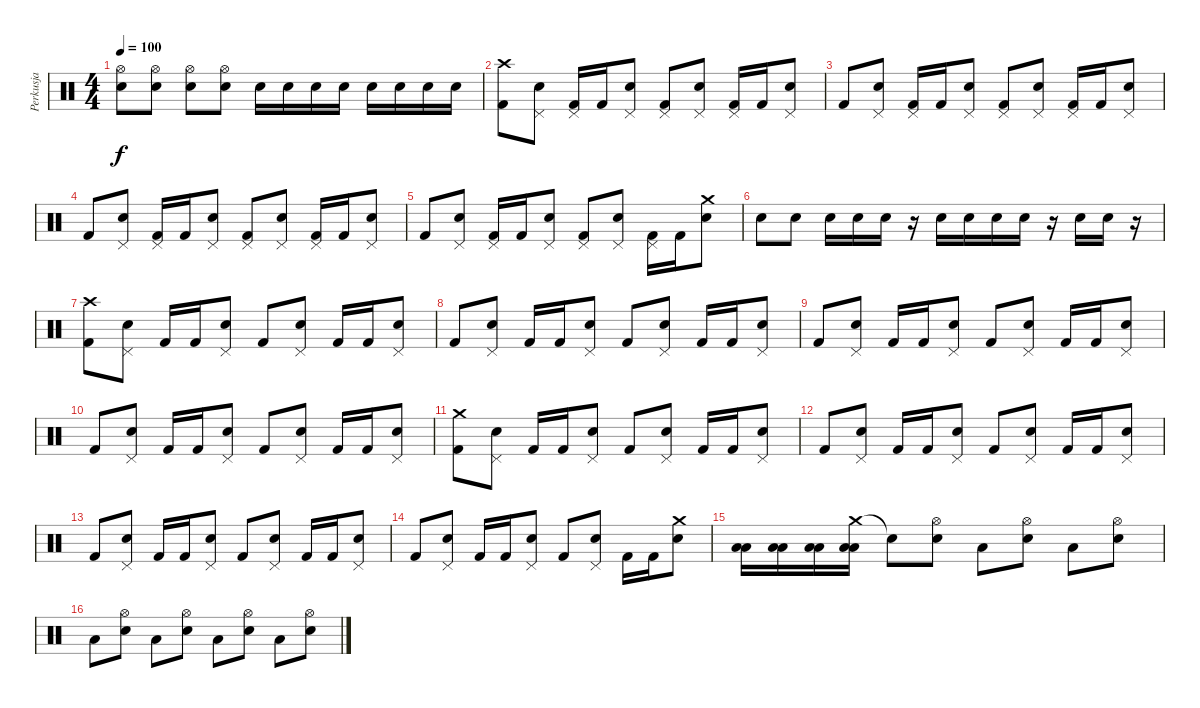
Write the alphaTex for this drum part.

\track ("Perkusja" "Perkusja") {instrument percussion}
\staff {score}
\articulation defaults
\ts (4 4)
\tempo 100
\clef neutral
\ks c
("Hi-Hat (open)" "Snare (hit) 2").8{dy f} ("Hi-Hat (open)" "Snare (hit) 2").8 ("Hi-Hat (open)" "Snare (hit) 2").8 ("Hi-Hat (open)" "Snare (hit) 2").8 "Snare (hit) 2".16 "Snare (hit) 2".16 "Snare (hit) 2".16 "Snare (hit) 2".16 "Snare (hit) 2".16 "Snare (hit) 2".16 "Snare (hit) 2".16 "Snare (hit) 2".16 |
("Crash high (hit)" "Kick (hit) 2").8 ("Pedal Hi-Hat (hit)" "Snare (hit) 2").8 ("Pedal Hi-Hat (hit)" "Kick (hit) 2").16 "Kick (hit) 2".16 ("Pedal Hi-Hat (hit)" "Snare (hit) 2").8 ("Pedal Hi-Hat (hit)" "Kick (hit) 2").8 ("Pedal Hi-Hat (hit)" "Snare (hit) 2").8 ("Pedal Hi-Hat (hit)" "Kick (hit) 2").16 "Kick (hit) 2".16 ("Pedal Hi-Hat (hit)" "Snare (hit) 2").8 |
"Kick (hit) 2".8 ("Pedal Hi-Hat (hit)" "Snare (hit) 2").8 ("Pedal Hi-Hat (hit)" "Kick (hit) 2").16 "Kick (hit) 2".16 ("Pedal Hi-Hat (hit)" "Snare (hit) 2").8 ("Pedal Hi-Hat (hit)" "Kick (hit) 2").8 ("Pedal Hi-Hat (hit)" "Snare (hit) 2").8 ("Pedal Hi-Hat (hit)" "Kick (hit) 2").16 "Kick (hit) 2".16 ("Pedal Hi-Hat (hit)" "Snare (hit) 2").8 |
"Kick (hit) 2".8 ("Pedal Hi-Hat (hit)" "Snare (hit) 2").8 ("Pedal Hi-Hat (hit)" "Kick (hit) 2").16 "Kick (hit) 2".16 ("Pedal Hi-Hat (hit)" "Snare (hit) 2").8 ("Pedal Hi-Hat (hit)" "Kick (hit) 2").8 ("Pedal Hi-Hat (hit)" "Snare (hit) 2").8 ("Pedal Hi-Hat (hit)" "Kick (hit) 2").16 "Kick (hit) 2".16 ("Pedal Hi-Hat (hit)" "Snare (hit) 2").8 |
"Kick (hit) 2".8 ("Pedal Hi-Hat (hit)" "Snare (hit) 2").8 ("Pedal Hi-Hat (hit)" "Kick (hit) 2").16 "Kick (hit) 2".16 ("Pedal Hi-Hat (hit)" "Snare (hit) 2").8 ("Pedal Hi-Hat (hit)" "Kick (hit) 2").8 ("Pedal Hi-Hat (hit)" "Snare (hit) 2").8 ("Pedal Hi-Hat (hit)" "Kick (hit) 2").16 "Kick (hit) 2".16 ("Crash medium (hit)" "Snare (hit) 2").8 |
"Snare (hit) 2".8 "Snare (hit) 2".8 "Snare (hit) 2".16 "Snare (hit) 2".16 "Snare (hit) 2".16 r.16 "Snare (hit) 2".16 "Snare (hit) 2".16 "Snare (hit) 2".16 "Snare (hit) 2".16 r.16 "Snare (hit) 2".16 "Snare (hit) 2".16 r.16 |
("Crash high (hit)" "Kick (hit) 2").8 ("Pedal Hi-Hat (hit)" "Snare (hit) 2").8 "Kick (hit) 2".16 "Kick (hit) 2".16 ("Pedal Hi-Hat (hit)" "Snare (hit) 2").8 "Kick (hit) 2".8 ("Pedal Hi-Hat (hit)" "Snare (hit) 2").8 "Kick (hit) 2".16 "Kick (hit) 2".16 ("Pedal Hi-Hat (hit)" "Snare (hit) 2").8 |
"Kick (hit) 2".8 ("Pedal Hi-Hat (hit)" "Snare (hit) 2").8 "Kick (hit) 2".16 "Kick (hit) 2".16 ("Pedal Hi-Hat (hit)" "Snare (hit) 2").8 "Kick (hit) 2".8 ("Pedal Hi-Hat (hit)" "Snare (hit) 2").8 "Kick (hit) 2".16 "Kick (hit) 2".16 ("Pedal Hi-Hat (hit)" "Snare (hit) 2").8 |
"Kick (hit) 2".8 ("Pedal Hi-Hat (hit)" "Snare (hit) 2").8 "Kick (hit) 2".16 "Kick (hit) 2".16 ("Pedal Hi-Hat (hit)" "Snare (hit) 2").8 "Kick (hit) 2".8 ("Pedal Hi-Hat (hit)" "Snare (hit) 2").8 "Kick (hit) 2".16 "Kick (hit) 2".16 ("Pedal Hi-Hat (hit)" "Snare (hit) 2").8 |
"Kick (hit) 2".8 ("Pedal Hi-Hat (hit)" "Snare (hit) 2").8 "Kick (hit) 2".16 "Kick (hit) 2".16 ("Pedal Hi-Hat (hit)" "Snare (hit) 2").8 "Kick (hit) 2".8 ("Pedal Hi-Hat (hit)" "Snare (hit) 2").8 "Kick (hit) 2".16 "Kick (hit) 2".16 ("Pedal Hi-Hat (hit)" "Snare (hit) 2").8 |
("Crash medium (hit)" "Kick (hit) 2").8 ("Pedal Hi-Hat (hit)" "Snare (hit) 2").8 "Kick (hit) 2".16 "Kick (hit) 2".16 ("Pedal Hi-Hat (hit)" "Snare (hit) 2").8 "Kick (hit) 2".8 ("Pedal Hi-Hat (hit)" "Snare (hit) 2").8 "Kick (hit) 2".16 "Kick (hit) 2".16 ("Pedal Hi-Hat (hit)" "Snare (hit) 2").8 |
"Kick (hit) 2".8 ("Pedal Hi-Hat (hit)" "Snare (hit) 2").8 "Kick (hit) 2".16 "Kick (hit) 2".16 ("Pedal Hi-Hat (hit)" "Snare (hit) 2").8 "Kick (hit) 2".8 ("Pedal Hi-Hat (hit)" "Snare (hit) 2").8 "Kick (hit) 2".16 "Kick (hit) 2".16 ("Pedal Hi-Hat (hit)" "Snare (hit) 2").8 |
"Kick (hit) 2".8 ("Pedal Hi-Hat (hit)" "Snare (hit) 2").8 "Kick (hit) 2".16 "Kick (hit) 2".16 ("Pedal Hi-Hat (hit)" "Snare (hit) 2").8 "Kick (hit) 2".8 ("Pedal Hi-Hat (hit)" "Snare (hit) 2").8 "Kick (hit) 2".16 "Kick (hit) 2".16 ("Pedal Hi-Hat (hit)" "Snare (hit) 2").8 |
"Kick (hit) 2".8 ("Pedal Hi-Hat (hit)" "Snare (hit) 2").8 "Kick (hit) 2".16 "Kick (hit) 2".16 ("Pedal Hi-Hat (hit)" "Snare (hit) 2").8 "Kick (hit) 2".8 ("Pedal Hi-Hat (hit)" "Snare (hit) 2").8 "Kick (hit) 2".16 "Kick (hit) 2".16 ("Crash medium (hit)" "Snare (hit) 2").8 |
("Low Tom (hit)" "Low Tom (hit)").16 ("Low Tom (hit)" "Low Tom (hit)").16 ("Low Tom (hit)" "Low Tom (hit)").16 ("Crash medium (hit)" "Low Tom (hit)" "Low Tom (hit)").16 "Snare (hit)"{t}.8 ("Hi-Hat (open)" "Snare (hit) 2").8 "Low Tom (hit)".8 ("Hi-Hat (open)" "Snare (hit) 2").8 "Low Tom (hit)".8 ("Hi-Hat (open)" "Snare (hit) 2").8 |
"Low Tom (hit)".8 ("Hi-Hat (open)" "Snare (hit) 2").8 "Low Tom (hit)".8 ("Hi-Hat (open)" "Snare (hit) 2").8 "Low Tom (hit)".8 ("Hi-Hat (open)" "Snare (hit) 2").8 "Low Tom (hit)".8 ("Hi-Hat (open)" "Snare (hit) 2").8
